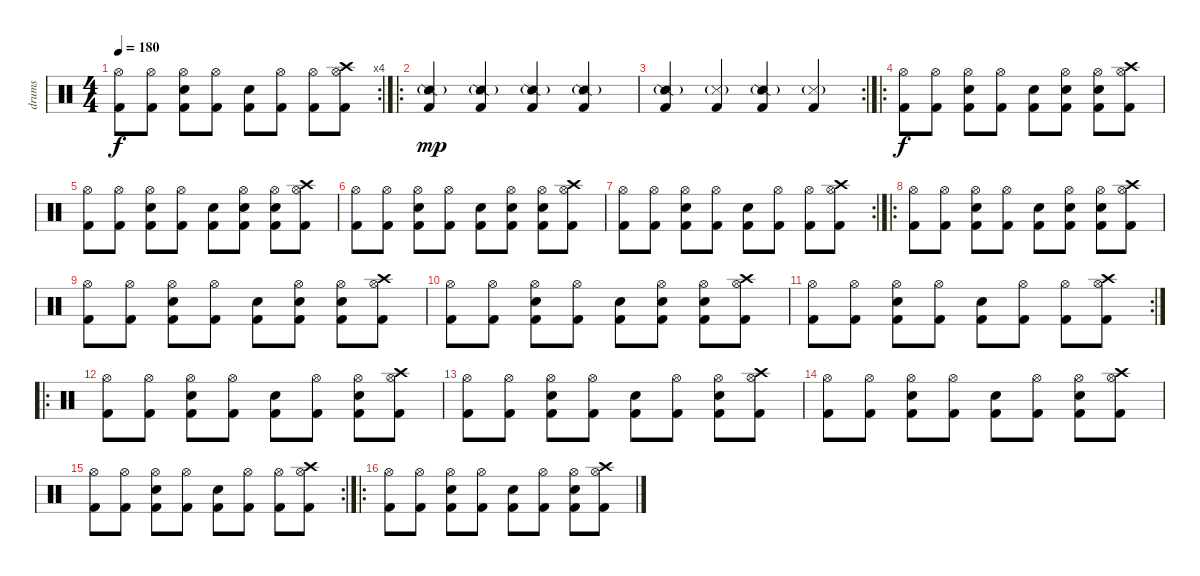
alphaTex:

\track ("drums" "drums") {instrument percussion}
\staff {score}
\articulation defaults
\rc 4
\ts (4 4)
\tempo 180
\clef neutral
\ks c
("Hi-Hat (open)" "Kick (hit) 2").8{dy f} ("Hi-Hat (open)" "Kick (hit) 2").8 ("Snare (hit) 2" "Hi-Hat (open)" "Kick (hit) 2").8 ("Hi-Hat (open)" "Kick (hit) 2").8 ("Snare (hit) 2" "Kick (hit) 2").8 ("Hi-Hat (open)" "Kick (hit) 2").8 ("Hi-Hat (open)" "Kick (hit) 2").8 ("Crash high (hit)" "Hi-Hat (open)" "Kick (hit) 2").8 |
\ro
("Kick (hit) 2" "Snare (side stick) 2"{g}).4{dy mp} ("Kick (hit) 2" "Snare (side stick) 2"{g}).4 ("Kick (hit) 2" "Snare (side stick) 2"{g}).4 ("Kick (hit) 2" "Snare (side stick) 2"{g}).4 |
\rc 2
("Kick (hit) 2" "Snare (side stick) 2"{g}).4 ("Kick (hit) 2" "Snare (side stick) 3"{g}).4 ("Kick (hit) 2" "Snare (side stick) 2"{g}).4 ("Kick (hit) 2" "Snare (side stick) 3"{g}).4 |
\ro
("Hi-Hat (open)" "Kick (hit) 2").8{dy f} ("Hi-Hat (open)" "Kick (hit) 2").8 ("Snare (hit) 2" "Hi-Hat (open)" "Kick (hit) 2").8 ("Hi-Hat (open)" "Kick (hit) 2").8 ("Snare (hit) 2" "Kick (hit) 2").8 ("Snare (hit) 2" "Hi-Hat (open)" "Kick (hit) 2").8 ("Snare (hit) 2" "Hi-Hat (open)" "Kick (hit) 2").8 ("Crash high (hit)" "Hi-Hat (open)" "Kick (hit) 2").8 |
("Hi-Hat (open)" "Kick (hit) 2").8 ("Hi-Hat (open)" "Kick (hit) 2").8 ("Snare (hit) 2" "Hi-Hat (open)" "Kick (hit) 2").8 ("Hi-Hat (open)" "Kick (hit) 2").8 ("Snare (hit) 2" "Kick (hit) 2").8 ("Snare (hit) 2" "Hi-Hat (open)" "Kick (hit) 2").8 ("Snare (hit) 2" "Hi-Hat (open)" "Kick (hit) 2").8 ("Crash high (hit)" "Hi-Hat (open)" "Kick (hit) 2").8 |
("Hi-Hat (open)" "Kick (hit) 2").8 ("Hi-Hat (open)" "Kick (hit) 2").8 ("Snare (hit) 2" "Hi-Hat (open)" "Kick (hit) 2").8 ("Hi-Hat (open)" "Kick (hit) 2").8 ("Snare (hit) 2" "Kick (hit) 2").8 ("Snare (hit) 2" "Hi-Hat (open)" "Kick (hit) 2").8 ("Snare (hit) 2" "Hi-Hat (open)" "Kick (hit) 2").8 ("Crash high (hit)" "Hi-Hat (open)" "Kick (hit) 2").8 |
\rc 2
("Hi-Hat (open)" "Kick (hit) 2").8 ("Hi-Hat (open)" "Kick (hit) 2").8 ("Snare (hit) 2" "Hi-Hat (open)" "Kick (hit) 2").8 ("Hi-Hat (open)" "Kick (hit) 2").8 ("Snare (hit) 2" "Kick (hit) 2").8 ("Hi-Hat (open)" "Kick (hit) 2").8 ("Hi-Hat (open)" "Kick (hit) 2").8 ("Crash high (hit)" "Hi-Hat (open)" "Kick (hit) 2").8 |
\ro
("Hi-Hat (open)" "Kick (hit) 2").8 ("Hi-Hat (open)" "Kick (hit) 2").8 ("Snare (hit) 2" "Hi-Hat (open)" "Kick (hit) 2").8 ("Hi-Hat (open)" "Kick (hit) 2").8 ("Snare (hit) 2" "Kick (hit) 2").8 ("Snare (hit) 2" "Hi-Hat (open)" "Kick (hit) 2").8 ("Snare (hit) 2" "Hi-Hat (open)" "Kick (hit) 2").8 ("Crash high (hit)" "Hi-Hat (open)" "Kick (hit) 2").8 |
("Hi-Hat (open)" "Kick (hit) 2").8 ("Hi-Hat (open)" "Kick (hit) 2").8 ("Snare (hit) 2" "Hi-Hat (open)" "Kick (hit) 2").8 ("Hi-Hat (open)" "Kick (hit) 2").8 ("Snare (hit) 2" "Kick (hit) 2").8 ("Snare (hit) 2" "Hi-Hat (open)" "Kick (hit) 2").8 ("Snare (hit) 2" "Hi-Hat (open)" "Kick (hit) 2").8 ("Crash high (hit)" "Hi-Hat (open)" "Kick (hit) 2").8 |
("Hi-Hat (open)" "Kick (hit) 2").8 ("Hi-Hat (open)" "Kick (hit) 2").8 ("Snare (hit) 2" "Hi-Hat (open)" "Kick (hit) 2").8 ("Hi-Hat (open)" "Kick (hit) 2").8 ("Snare (hit) 2" "Kick (hit) 2").8 ("Snare (hit) 2" "Hi-Hat (open)" "Kick (hit) 2").8 ("Snare (hit) 2" "Hi-Hat (open)" "Kick (hit) 2").8 ("Crash high (hit)" "Hi-Hat (open)" "Kick (hit) 2").8 |
\rc 2
("Hi-Hat (open)" "Kick (hit) 2").8 ("Hi-Hat (open)" "Kick (hit) 2").8 ("Snare (hit) 2" "Hi-Hat (open)" "Kick (hit) 2").8 ("Hi-Hat (open)" "Kick (hit) 2").8 ("Snare (hit) 2" "Kick (hit) 2").8 ("Hi-Hat (open)" "Kick (hit) 2").8 ("Hi-Hat (open)" "Kick (hit) 2").8 ("Crash high (hit)" "Hi-Hat (open)" "Kick (hit) 2").8 |
\ro
("Hi-Hat (open)" "Kick (hit) 2").8 ("Hi-Hat (open)" "Kick (hit) 2").8 ("Snare (hit) 2" "Hi-Hat (open)" "Kick (hit) 2").8 ("Hi-Hat (open)" "Kick (hit) 2").8 ("Snare (hit) 2" "Kick (hit) 2").8 ("Hi-Hat (open)" "Kick (hit) 2").8 ("Snare (hit) 2" "Hi-Hat (open)" "Kick (hit) 2").8 ("Crash high (hit)" "Hi-Hat (open)" "Kick (hit) 2").8 |
("Hi-Hat (open)" "Kick (hit) 2").8 ("Hi-Hat (open)" "Kick (hit) 2").8 ("Snare (hit) 2" "Hi-Hat (open)" "Kick (hit) 2").8 ("Hi-Hat (open)" "Kick (hit) 2").8 ("Snare (hit) 2" "Kick (hit) 2").8 ("Hi-Hat (open)" "Kick (hit) 2").8 ("Snare (hit) 2" "Hi-Hat (open)" "Kick (hit) 2").8 ("Crash high (hit)" "Hi-Hat (open)" "Kick (hit) 2").8 |
("Hi-Hat (open)" "Kick (hit) 2").8 ("Hi-Hat (open)" "Kick (hit) 2").8 ("Snare (hit) 2" "Hi-Hat (open)" "Kick (hit) 2").8 ("Hi-Hat (open)" "Kick (hit) 2").8 ("Snare (hit) 2" "Kick (hit) 2").8 ("Hi-Hat (open)" "Kick (hit) 2").8 ("Snare (hit) 2" "Hi-Hat (open)" "Kick (hit) 2").8 ("Crash high (hit)" "Hi-Hat (open)" "Kick (hit) 2").8 |
\rc 2
("Hi-Hat (open)" "Kick (hit) 2").8 ("Hi-Hat (open)" "Kick (hit) 2").8 ("Snare (hit) 2" "Hi-Hat (open)" "Kick (hit) 2").8 ("Hi-Hat (open)" "Kick (hit) 2").8 ("Snare (hit) 2" "Kick (hit) 2").8 ("Hi-Hat (open)" "Kick (hit) 2").8 ("Hi-Hat (open)" "Kick (hit) 2").8 ("Crash high (hit)" "Hi-Hat (open)" "Kick (hit) 2").8 |
\ro
("Hi-Hat (open)" "Kick (hit) 2").8 ("Hi-Hat (open)" "Kick (hit) 2").8 ("Snare (hit) 2" "Hi-Hat (open)" "Kick (hit) 2").8 ("Hi-Hat (open)" "Kick (hit) 2").8 ("Snare (hit) 2" "Kick (hit) 2").8 ("Hi-Hat (open)" "Kick (hit) 2").8 ("Snare (hit) 2" "Hi-Hat (open)" "Kick (hit) 2").8 ("Crash high (hit)" "Hi-Hat (open)" "Kick (hit) 2").8
